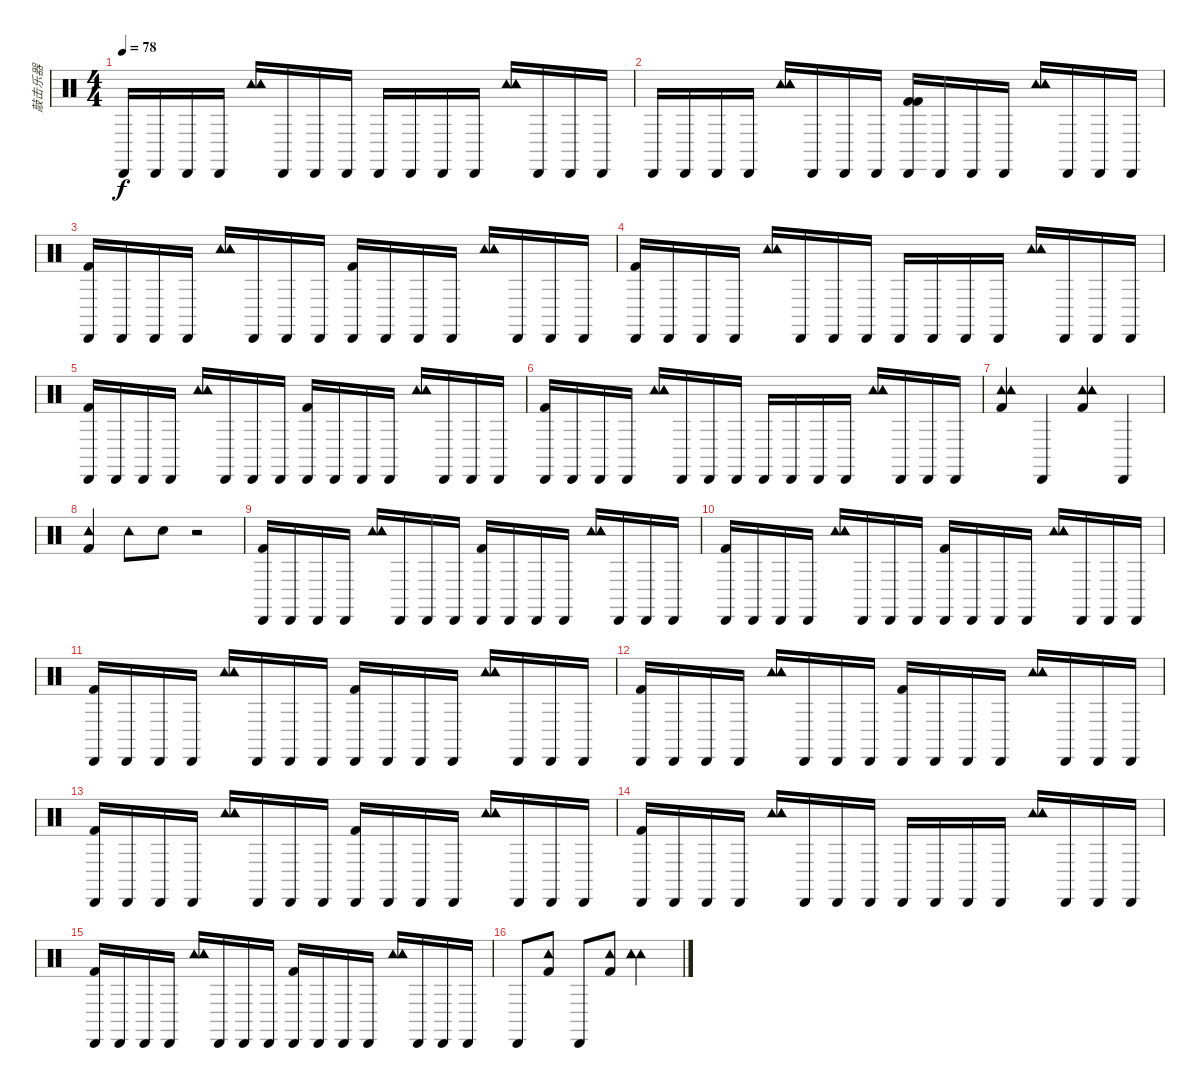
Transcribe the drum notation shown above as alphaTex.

\track ("敲击乐器" "敲击乐器") {instrument percussion}
\staff {score}
\articulation defaults
\ts (4 4)
\tempo 78
\clef neutral
\ks c "Cabasa (hit)".16{dy f} "Cabasa (hit)".16 "Cabasa (hit)".16 "Cabasa (hit)".16
("Tambourine (hit)" "Tambourine (hit)" "Tambourine (hit)").16 "Cabasa (hit)".16 "Cabasa (hit)".16 "Cabasa (hit)".16 "Cabasa (hit)".16 "Cabasa (hit)".16 "Cabasa (hit)".16 "Cabasa (hit)".16 ("Tambourine (hit)" "Tambourine (hit)" "Tambourine (hit)").16 "Cabasa (hit)".16 "Cabasa (hit)".16 "Cabasa (hit)".16 |
"Cabasa (hit)".16 "Cabasa (hit)".16 "Cabasa (hit)".16 "Cabasa (hit)".16 ("Tambourine (hit)" "Tambourine (hit)" "Tambourine (hit)").16 "Cabasa (hit)".16 "Cabasa (hit)".16 "Cabasa (hit)".16 ("Cabasa (hit)" "Kick (hit) 2" "Kick (hit) 2").16 "Cabasa (hit)".16 "Cabasa (hit)".16 "Cabasa (hit)".16 ("Tambourine (hit)" "Tambourine (hit)" "Tambourine (hit)").16 "Cabasa (hit)".16 "Cabasa (hit)".16 "Cabasa (hit)".16 |
("Cabasa (hit)" "Kick (hit) 2").16 "Cabasa (hit)".16 "Cabasa (hit)".16 "Cabasa (hit)".16 ("Tambourine (hit)" "Tambourine (hit)" "Tambourine (hit)").16 "Cabasa (hit)".16 "Cabasa (hit)".16 "Cabasa (hit)".16 ("Cabasa (hit)" "Kick (hit) 2").16 "Cabasa (hit)".16 "Cabasa (hit)".16 "Cabasa (hit)".16 ("Tambourine (hit)" "Tambourine (hit)" "Tambourine (hit)").16 "Cabasa (hit)".16 "Cabasa (hit)".16 "Cabasa (hit)".16 |
("Cabasa (hit)" "Kick (hit) 2").16 "Cabasa (hit)".16 "Cabasa (hit)".16 "Cabasa (hit)".16 ("Tambourine (hit)" "Tambourine (hit)" "Tambourine (hit)").16 "Cabasa (hit)".16 "Cabasa (hit)".16 "Cabasa (hit)".16 "Cabasa (hit)".16 "Cabasa (hit)".16 "Cabasa (hit)".16 "Cabasa (hit)".16 ("Tambourine (hit)" "Tambourine (hit)" "Tambourine (hit)").16 "Cabasa (hit)".16 "Cabasa (hit)".16 "Cabasa (hit)".16 |
("Cabasa (hit)" "Kick (hit) 2").16 "Cabasa (hit)".16 "Cabasa (hit)".16 "Cabasa (hit)".16 ("Tambourine (hit)" "Tambourine (hit)" "Tambourine (hit)").16 "Cabasa (hit)".16 "Cabasa (hit)".16 "Cabasa (hit)".16 ("Cabasa (hit)" "Kick (hit) 2").16 "Cabasa (hit)".16 "Cabasa (hit)".16 "Cabasa (hit)".16 ("Tambourine (hit)" "Tambourine (hit)" "Tambourine (hit)").16 "Cabasa (hit)".16 "Cabasa (hit)".16 "Cabasa (hit)".16 |
("Cabasa (hit)" "Kick (hit) 2").16 "Cabasa (hit)".16 "Cabasa (hit)".16 "Cabasa (hit)".16 ("Tambourine (hit)" "Tambourine (hit)" "Tambourine (hit)").16 "Cabasa (hit)".16 "Cabasa (hit)".16 "Cabasa (hit)".16 "Cabasa (hit)".16 "Cabasa (hit)".16 "Cabasa (hit)".16 "Cabasa (hit)".16 ("Tambourine (hit)" "Tambourine (hit)" "Tambourine (hit)").16 "Cabasa (hit)".16 "Cabasa (hit)".16 "Cabasa (hit)".16 |
("Tambourine (hit)" "Tambourine (hit)" "Kick (hit) 2").4 "Cabasa (hit)".4 ("Tambourine (hit)" "Tambourine (hit)" "Kick (hit) 2").4 "Cabasa (hit)".4 |
("Tambourine (hit)" "Kick (hit) 2").4 "Tambourine (hit)".8 "Metronome (bell)".8 r.2 |
("Cabasa (hit)" "Kick (hit) 2").16 "Cabasa (hit)".16 "Cabasa (hit)".16 "Cabasa (hit)".16 ("Tambourine (hit)" "Tambourine (hit)" "Tambourine (hit)").16 "Cabasa (hit)".16 "Cabasa (hit)".16 "Cabasa (hit)".16 ("Cabasa (hit)" "Kick (hit) 2").16 "Cabasa (hit)".16 "Cabasa (hit)".16 "Cabasa (hit)".16 ("Tambourine (hit)" "Tambourine (hit)" "Tambourine (hit)").16 "Cabasa (hit)".16 "Cabasa (hit)".16 "Cabasa (hit)".16 |
("Cabasa (hit)" "Kick (hit) 2").16 "Cabasa (hit)".16 "Cabasa (hit)".16 "Cabasa (hit)".16 ("Tambourine (hit)" "Tambourine (hit)" "Tambourine (hit)").16 "Cabasa (hit)".16 "Cabasa (hit)".16 "Cabasa (hit)".16 ("Cabasa (hit)" "Kick (hit) 2").16 "Cabasa (hit)".16 "Cabasa (hit)".16 "Cabasa (hit)".16 ("Tambourine (hit)" "Tambourine (hit)" "Tambourine (hit)").16 "Cabasa (hit)".16 "Cabasa (hit)".16 "Cabasa (hit)".16 |
("Cabasa (hit)" "Kick (hit) 2").16 "Cabasa (hit)".16 "Cabasa (hit)".16 "Cabasa (hit)".16 ("Tambourine (hit)" "Tambourine (hit)" "Tambourine (hit)").16 "Cabasa (hit)".16 "Cabasa (hit)".16 "Cabasa (hit)".16 ("Cabasa (hit)" "Kick (hit) 2").16 "Cabasa (hit)".16 "Cabasa (hit)".16 "Cabasa (hit)".16 ("Tambourine (hit)" "Tambourine (hit)" "Tambourine (hit)").16 "Cabasa (hit)".16 "Cabasa (hit)".16 "Cabasa (hit)".16 |
("Cabasa (hit)" "Kick (hit) 2").16 "Cabasa (hit)".16 "Cabasa (hit)".16 "Cabasa (hit)".16 ("Tambourine (hit)" "Tambourine (hit)" "Tambourine (hit)").16 "Cabasa (hit)".16 "Cabasa (hit)".16 "Cabasa (hit)".16 ("Cabasa (hit)" "Kick (hit) 2").16 "Cabasa (hit)".16 "Cabasa (hit)".16 "Cabasa (hit)".16 ("Tambourine (hit)" "Tambourine (hit)" "Tambourine (hit)").16 "Cabasa (hit)".16 "Cabasa (hit)".16 "Cabasa (hit)".16 |
("Cabasa (hit)" "Kick (hit) 2").16 "Cabasa (hit)".16 "Cabasa (hit)".16 "Cabasa (hit)".16 ("Tambourine (hit)" "Tambourine (hit)" "Tambourine (hit)").16 "Cabasa (hit)".16 "Cabasa (hit)".16 "Cabasa (hit)".16 ("Cabasa (hit)" "Kick (hit) 2").16 "Cabasa (hit)".16 "Cabasa (hit)".16 "Cabasa (hit)".16 ("Tambourine (hit)" "Tambourine (hit)" "Tambourine (hit)").16 "Cabasa (hit)".16 "Cabasa (hit)".16 "Cabasa (hit)".16 |
("Cabasa (hit)" "Kick (hit) 2").16 "Cabasa (hit)".16 "Cabasa (hit)".16 "Cabasa (hit)".16 ("Tambourine (hit)" "Tambourine (hit)" "Tambourine (hit)").16 "Cabasa (hit)".16 "Cabasa (hit)".16 "Cabasa (hit)".16 "Cabasa (hit)".16 "Cabasa (hit)".16 "Cabasa (hit)".16 "Cabasa (hit)".16 ("Tambourine (hit)" "Tambourine (hit)" "Tambourine (hit)").16 "Cabasa (hit)".16 "Cabasa (hit)".16 "Cabasa (hit)".16 |
("Cabasa (hit)" "Kick (hit) 2").16 "Cabasa (hit)".16 "Cabasa (hit)".16 "Cabasa (hit)".16 ("Tambourine (hit)" "Tambourine (hit)" "Tambourine (hit)").16 "Cabasa (hit)".16 "Cabasa (hit)".16 "Cabasa (hit)".16 ("Cabasa (hit)" "Kick (hit) 2").16 "Cabasa (hit)".16 "Cabasa (hit)".16 "Cabasa (hit)".16 ("Tambourine (hit)" "Tambourine (hit)" "Tambourine (hit)").16 "Cabasa (hit)".16 "Cabasa (hit)".16 "Cabasa (hit)".16 |
"Cabasa (hit)".8 ("Tambourine (hit)" "Kick (hit) 2").8 "Cabasa (hit)".8 ("Tambourine (hit)" "Kick (hit) 2").8 ("Tambourine (hit)" "Tambourine (hit)" "Tambourine (hit)").2
